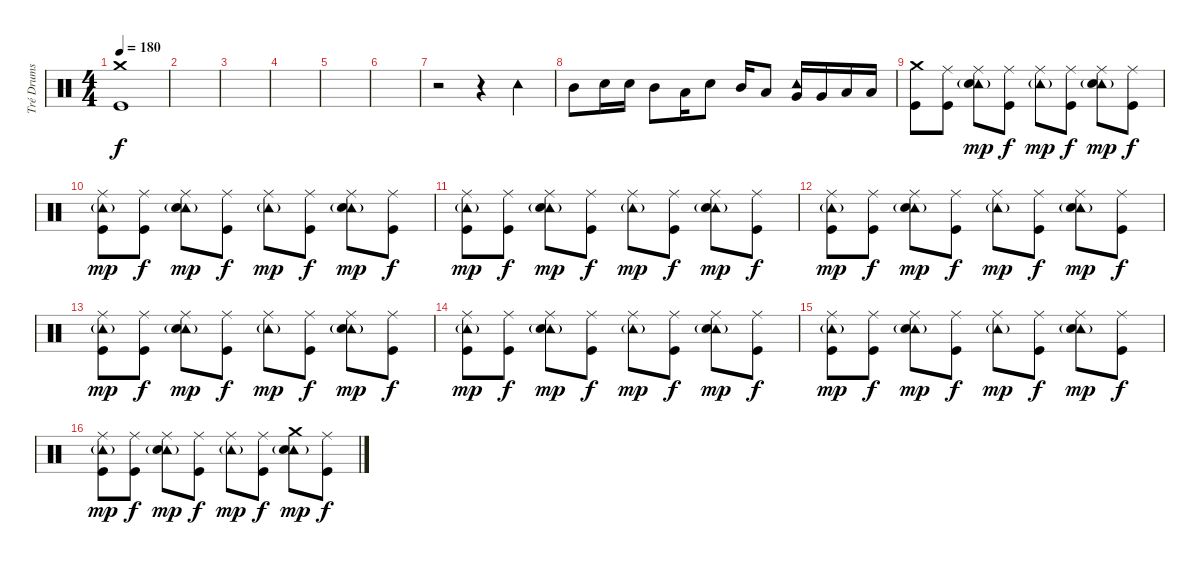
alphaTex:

\track ("Tré Drums" "Tré Drums") {instrument percussion}
\staff {score}
\articulation defaults
\ts (4 4)
\tempo 180
\clef neutral
\ks c
("Crash medium (hit)" "Kick (hit)").1{dy f} |
|
|
|
|
|
r.2 r.4 "Tambourine (hit)".4 |
"Mid Tom (hit)".8 "Electric Snare (hit)".16 "Electric Snare (hit)".16 "Mid Tom (hit)".8 "Low Tom (hit)".16 "Electric Snare (hit)".8 "Mid Tom (hit)".16 "Low Tom (hit)".8 ("Tambourine (hit)" "Very Low Tom (hit)").16 "Very Low Tom (hit)".16 "Low Floor Tom (hit)".16 "Low Floor Tom (hit)".16 |
("Crash medium (hit)" "Kick (hit)").8 ("Ride (middle)" "Kick (hit)").8 ("Tambourine (hit)"{g} "Ride (middle)" "Electric Snare (hit)").8{dy mp} ("Ride (middle)" "Kick (hit)").8{dy f} ("Tambourine (hit)"{g} "Ride (middle)").8{dy mp} ("Ride (middle)" "Kick (hit)").8{dy f} ("Tambourine (hit)"{g} "Ride (middle)" "Electric Snare (hit)").8{dy mp} ("Ride (middle)" "Kick (hit)").8{dy f} |
("Tambourine (hit)"{g} "Ride (middle)" "Kick (hit)").8{dy mp} ("Ride (middle)" "Kick (hit)").8{dy f} ("Tambourine (hit)"{g} "Ride (middle)" "Electric Snare (hit)").8{dy mp} ("Ride (middle)" "Kick (hit)").8{dy f} ("Tambourine (hit)"{g} "Ride (middle)").8{dy mp} ("Ride (middle)" "Kick (hit)").8{dy f} ("Tambourine (hit)"{g} "Ride (middle)" "Electric Snare (hit)").8{dy mp} ("Ride (middle)" "Kick (hit)").8{dy f} |
("Tambourine (hit)"{g} "Ride (middle)" "Kick (hit)").8{dy mp} ("Ride (middle)" "Kick (hit)").8{dy f} ("Tambourine (hit)"{g} "Ride (middle)" "Electric Snare (hit)").8{dy mp} ("Ride (middle)" "Kick (hit)").8{dy f} ("Tambourine (hit)"{g} "Ride (middle)").8{dy mp} ("Ride (middle)" "Kick (hit)").8{dy f} ("Tambourine (hit)"{g} "Ride (middle)" "Electric Snare (hit)").8{dy mp} ("Ride (middle)" "Kick (hit)").8{dy f} |
("Tambourine (hit)"{g} "Ride (middle)" "Kick (hit)").8{dy mp} ("Ride (middle)" "Kick (hit)").8{dy f} ("Tambourine (hit)"{g} "Ride (middle)" "Electric Snare (hit)").8{dy mp} ("Ride (middle)" "Kick (hit)").8{dy f} ("Tambourine (hit)"{g} "Ride (middle)").8{dy mp} ("Ride (middle)" "Kick (hit)").8{dy f} ("Tambourine (hit)"{g} "Ride (middle)" "Electric Snare (hit)").8{dy mp} ("Ride (middle)" "Kick (hit)").8{dy f} |
("Tambourine (hit)"{g} "Ride (middle)" "Kick (hit)").8{dy mp} ("Ride (middle)" "Kick (hit)").8{dy f} ("Tambourine (hit)"{g} "Ride (middle)" "Electric Snare (hit)").8{dy mp} ("Ride (middle)" "Kick (hit)").8{dy f} ("Tambourine (hit)"{g} "Ride (middle)").8{dy mp} ("Ride (middle)" "Kick (hit)").8{dy f} ("Tambourine (hit)"{g} "Ride (middle)" "Electric Snare (hit)").8{dy mp} ("Ride (middle)" "Kick (hit)").8{dy f} |
("Tambourine (hit)"{g} "Ride (middle)" "Kick (hit)").8{dy mp} ("Ride (middle)" "Kick (hit)").8{dy f} ("Tambourine (hit)"{g} "Ride (middle)" "Electric Snare (hit)").8{dy mp} ("Ride (middle)" "Kick (hit)").8{dy f} ("Tambourine (hit)"{g} "Ride (middle)").8{dy mp} ("Ride (middle)" "Kick (hit)").8{dy f} ("Tambourine (hit)"{g} "Ride (middle)" "Electric Snare (hit)").8{dy mp} ("Ride (middle)" "Kick (hit)").8{dy f} |
("Tambourine (hit)"{g} "Ride (middle)" "Kick (hit)").8{dy mp} ("Ride (middle)" "Kick (hit)").8{dy f} ("Tambourine (hit)"{g} "Ride (middle)" "Electric Snare (hit)").8{dy mp} ("Ride (middle)" "Kick (hit)").8{dy f} ("Tambourine (hit)"{g} "Ride (middle)").8{dy mp} ("Ride (middle)" "Kick (hit)").8{dy f} ("Tambourine (hit)"{g} "Ride (middle)" "Electric Snare (hit)").8{dy mp} ("Ride (middle)" "Kick (hit)").8{dy f} |
("Tambourine (hit)"{g} "Ride (middle)" "Kick (hit)").8{dy mp} ("Ride (middle)" "Kick (hit)").8{dy f} ("Tambourine (hit)"{g} "Ride (middle)" "Electric Snare (hit)").8{dy mp} ("Ride (middle)" "Kick (hit)").8{dy f} ("Tambourine (hit)"{g} "Ride (middle)").8{dy mp} ("Ride (middle)" "Kick (hit)").8{dy f} ("Tambourine (hit)"{g} "Crash medium (hit)" "Electric Snare (hit)").8{dy mp} ("Ride (middle)" "Kick (hit)").8{dy f}
